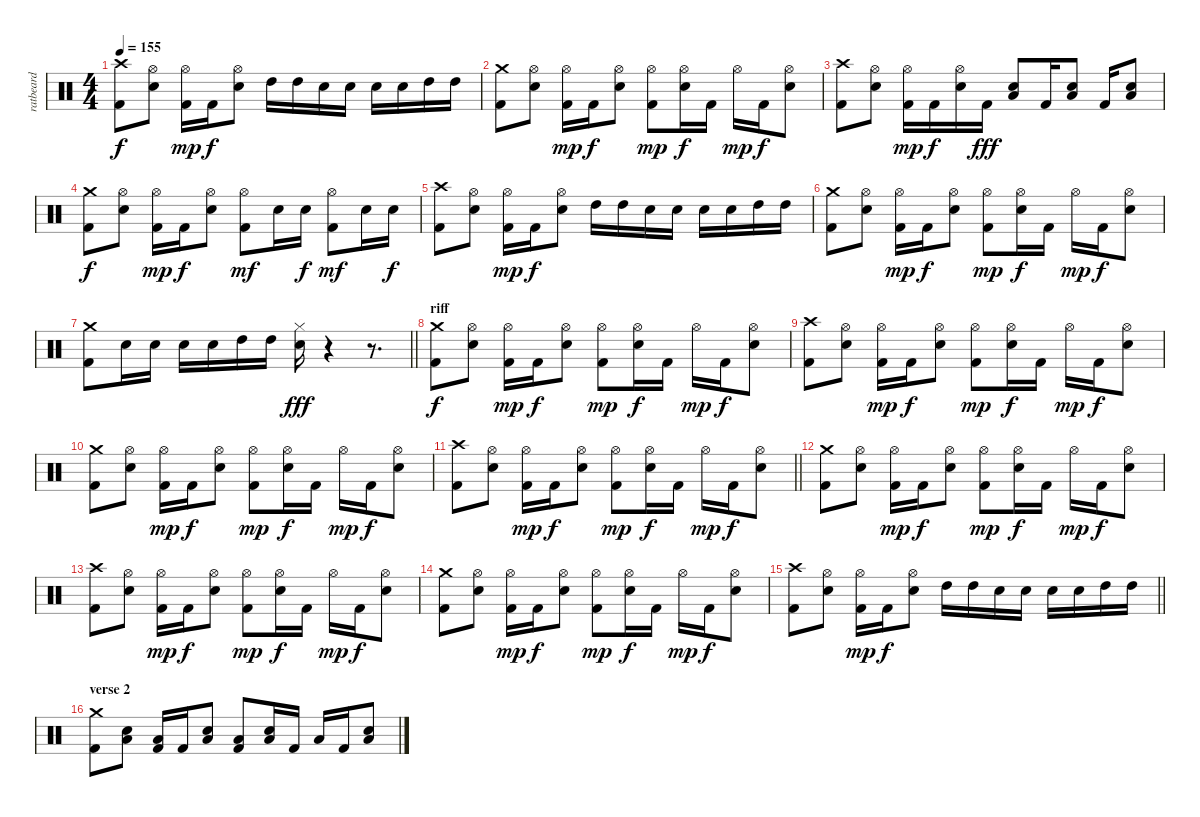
\track ("ratbeard" "ratbeard") {instrument percussion}
\staff {score}
\articulation defaults
\ts (4 4)
\tempo 155
\clef neutral
\ks c
("Crash high (hit)" "Kick (hit) 2").8{dy f} ("Hi-Hat (open)" "Electric Snare (hit)").8 ("Hi-Hat (open)" "Kick (hit) 2").16{dy mp} "Kick (hit) 2".16{dy f} ("Hi-Hat (open)" "Electric Snare (hit)").8 "High Tom (hit)".16 "High Tom (hit)".16 "Electric Snare (hit)".16 "Electric Snare (hit)".16 "Electric Snare (hit)".16 "Electric Snare (hit)".16 "High Tom (hit)".16 "High Tom (hit)".16 |
("Crash medium (hit)" "Kick (hit) 2").8 ("Hi-Hat (open)" "Electric Snare (hit)").8 ("Hi-Hat (open)" "Kick (hit) 2").16{dy mp} "Kick (hit) 2".16{dy f} ("Hi-Hat (open)" "Electric Snare (hit)").8 ("Hi-Hat (open)" "Kick (hit) 2").8{dy mp} ("Hi-Hat (open)" "Electric Snare (hit)").16{dy f} "Kick (hit) 2".16 "Hi-Hat (open)".16{dy mp} "Kick (hit) 2".16{dy f} ("Hi-Hat (open)" "Electric Snare (hit)").8 |
("Crash high (hit)" "Kick (hit) 2").8 ("Hi-Hat (open)" "Electric Snare (hit)").8 ("Hi-Hat (open)" "Kick (hit) 2").16{dy mp} "Kick (hit) 2".16{dy f} ("Hi-Hat (open)" "Electric Snare (hit)").16 "Kick (hit) 2".16{dy fff} ("Low Floor Tom (hit)" "Electric Snare (hit)").8 "Kick (hit) 2".16 ("Low Floor Tom (hit)" "Electric Snare (hit)").8 "Kick (hit) 2".16 ("Low Floor Tom (hit)" "Electric Snare (hit)").8 |
("Crash medium (hit)" "Kick (hit) 2").8{dy f} ("Hi-Hat (open)" "Electric Snare (hit)").8 ("Hi-Hat (open)" "Kick (hit) 2").16{dy mp} "Kick (hit) 2".16{dy f} ("Hi-Hat (open)" "Electric Snare (hit)").8 ("Hi-Hat (open)" "Kick (hit) 2").8{dy mf} "Electric Snare (hit)".16 "Electric Snare (hit)".16{dy f} ("Hi-Hat (open)" "Kick (hit) 2").8{dy mf} "Electric Snare (hit)".16 "Electric Snare (hit)".16{dy f} |
("Crash high (hit)" "Kick (hit) 2").8 ("Hi-Hat (open)" "Electric Snare (hit)").8 ("Hi-Hat (open)" "Kick (hit) 2").16{dy mp} "Kick (hit) 2".16{dy f} ("Hi-Hat (open)" "Electric Snare (hit)").8 "High Tom (hit)".16 "High Tom (hit)".16 "Electric Snare (hit)".16 "Electric Snare (hit)".16 "Electric Snare (hit)".16 "Electric Snare (hit)".16 "High Tom (hit)".16 "High Tom (hit)".16 |
("Crash medium (hit)" "Kick (hit) 2").8 ("Hi-Hat (open)" "Electric Snare (hit)").8 ("Hi-Hat (open)" "Kick (hit) 2").16{dy mp} "Kick (hit) 2".16{dy f} ("Hi-Hat (open)" "Electric Snare (hit)").8 ("Hi-Hat (open)" "Kick (hit) 2").8{dy mp} ("Hi-Hat (open)" "Electric Snare (hit)").16{dy f} "Kick (hit) 2".16 "Hi-Hat (open)".16{dy mp} "Kick (hit) 2".16{dy f} ("Hi-Hat (open)" "Electric Snare (hit)").8 |
\barLineRight lightlight
("Crash medium (hit)" "Kick (hit) 2").8 "Electric Snare (hit)".16 "Electric Snare (hit)".16 "Electric Snare (hit)".16 "Electric Snare (hit)".16 "High Tom (hit)".16 "High Tom (hit)".16 ("Hi-Hat (closed)" "Electric Snare (hit)").16{dy fff} r.4 r.8{d} |
\section ("" "riff")
("Crash medium (hit)" "Kick (hit) 2").8{dy f} ("Hi-Hat (open)" "Electric Snare (hit)").8 ("Hi-Hat (open)" "Kick (hit) 2").16{dy mp} "Kick (hit) 2".16{dy f} ("Hi-Hat (open)" "Electric Snare (hit)").8 ("Hi-Hat (open)" "Kick (hit) 2").8{dy mp} ("Hi-Hat (open)" "Electric Snare (hit)").16{dy f} "Kick (hit) 2".16 "Hi-Hat (open)".16{dy mp} "Kick (hit) 2".16{dy f} ("Hi-Hat (open)" "Electric Snare (hit)").8 |
("Crash high (hit)" "Kick (hit) 2").8 ("Hi-Hat (open)" "Electric Snare (hit)").8 ("Hi-Hat (open)" "Kick (hit) 2").16{dy mp} "Kick (hit) 2".16{dy f} ("Hi-Hat (open)" "Electric Snare (hit)").8 ("Hi-Hat (open)" "Kick (hit) 2").8{dy mp} ("Hi-Hat (open)" "Electric Snare (hit)").16{dy f} "Kick (hit) 2".16 "Hi-Hat (open)".16{dy mp} "Kick (hit) 2".16{dy f} ("Hi-Hat (open)" "Electric Snare (hit)").8 |
("Crash medium (hit)" "Kick (hit) 2").8 ("Hi-Hat (open)" "Electric Snare (hit)").8 ("Hi-Hat (open)" "Kick (hit) 2").16{dy mp} "Kick (hit) 2".16{dy f} ("Hi-Hat (open)" "Electric Snare (hit)").8 ("Hi-Hat (open)" "Kick (hit) 2").8{dy mp} ("Hi-Hat (open)" "Electric Snare (hit)").16{dy f} "Kick (hit) 2".16 "Hi-Hat (open)".16{dy mp} "Kick (hit) 2".16{dy f} ("Hi-Hat (open)" "Electric Snare (hit)").8 |
\barLineRight lightlight
("Crash high (hit)" "Kick (hit) 2").8 ("Hi-Hat (open)" "Electric Snare (hit)").8 ("Hi-Hat (open)" "Kick (hit) 2").16{dy mp} "Kick (hit) 2".16{dy f} ("Hi-Hat (open)" "Electric Snare (hit)").8 ("Hi-Hat (open)" "Kick (hit) 2").8{dy mp} ("Hi-Hat (open)" "Electric Snare (hit)").16{dy f} "Kick (hit) 2".16 "Hi-Hat (open)".16{dy mp} "Kick (hit) 2".16{dy f} ("Hi-Hat (open)" "Electric Snare (hit)").8 |
("Crash medium (hit)" "Kick (hit) 2").8 ("Hi-Hat (open)" "Electric Snare (hit)").8 ("Hi-Hat (open)" "Kick (hit) 2").16{dy mp} "Kick (hit) 2".16{dy f} ("Hi-Hat (open)" "Electric Snare (hit)").8 ("Hi-Hat (open)" "Kick (hit) 2").8{dy mp} ("Hi-Hat (open)" "Electric Snare (hit)").16{dy f} "Kick (hit) 2".16 "Hi-Hat (open)".16{dy mp} "Kick (hit) 2".16{dy f} ("Hi-Hat (open)" "Electric Snare (hit)").8 |
("Crash high (hit)" "Kick (hit) 2").8 ("Hi-Hat (open)" "Electric Snare (hit)").8 ("Hi-Hat (open)" "Kick (hit) 2").16{dy mp} "Kick (hit) 2".16{dy f} ("Hi-Hat (open)" "Electric Snare (hit)").8 ("Hi-Hat (open)" "Kick (hit) 2").8{dy mp} ("Hi-Hat (open)" "Electric Snare (hit)").16{dy f} "Kick (hit) 2".16 "Hi-Hat (open)".16{dy mp} "Kick (hit) 2".16{dy f} ("Hi-Hat (open)" "Electric Snare (hit)").8 |
("Crash medium (hit)" "Kick (hit) 2").8 ("Hi-Hat (open)" "Electric Snare (hit)").8 ("Hi-Hat (open)" "Kick (hit) 2").16{dy mp} "Kick (hit) 2".16{dy f} ("Hi-Hat (open)" "Electric Snare (hit)").8 ("Hi-Hat (open)" "Kick (hit) 2").8{dy mp} ("Hi-Hat (open)" "Electric Snare (hit)").16{dy f} "Kick (hit) 2".16 "Hi-Hat (open)".16{dy mp} "Kick (hit) 2".16{dy f} ("Hi-Hat (open)" "Electric Snare (hit)").8 |
\barLineRight lightlight
("Crash high (hit)" "Kick (hit) 2").8 ("Hi-Hat (open)" "Electric Snare (hit)").8 ("Hi-Hat (open)" "Kick (hit) 2").16{dy mp} "Kick (hit) 2".16{dy f} ("Hi-Hat (open)" "Electric Snare (hit)").8 "High Tom (hit)".16 "High Tom (hit)".16 "Electric Snare (hit)".16 "Electric Snare (hit)".16 "Electric Snare (hit)".16 "Electric Snare (hit)".16 "High Tom (hit)".16 "High Tom (hit)".16 |
\section ("" "verse 2")
("Crash medium (hit)" "Kick (hit) 2").8 ("Low Floor Tom (hit)" "Electric Snare (hit)").8 ("Low Floor Tom (hit)" "Kick (hit) 2").16 "Kick (hit) 2".16 ("Low Floor Tom (hit)" "Electric Snare (hit)").8 ("Low Floor Tom (hit)" "Kick (hit) 2").8 ("Low Floor Tom (hit)" "Electric Snare (hit)").16 "Kick (hit) 2".16 "Low Floor Tom (hit)".16 "Kick (hit) 2".16 ("Low Floor Tom (hit)" "Electric Snare (hit)").8
